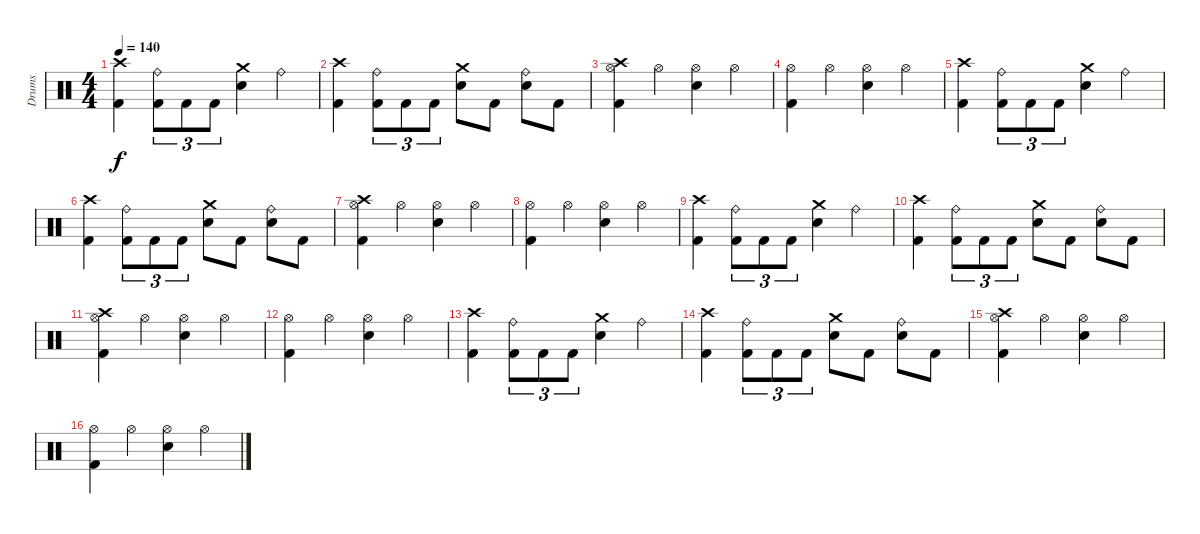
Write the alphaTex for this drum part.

\track ("Drums" "Drums") {instrument percussion}
\staff {score}
\articulation defaults
\ts (4 4)
\tempo 140
\clef neutral
\ks c
("Crash high (hit)" "Kick (hit) 2").4{dy f} ("Ride (bell)" "Kick (hit) 2").8{tu (3 2)} "Kick (hit) 2".8{tu (3 2)} "Kick (hit) 2".8{tu (3 2)} ("Crash medium (hit)" "Snare (hit) 2").4 "Ride (bell)".4 |
("Crash high (hit)" "Kick (hit) 2").4 ("Ride (bell)" "Kick (hit) 2").8{tu (3 2)} "Kick (hit) 2".8{tu (3 2)} "Kick (hit) 2".8{tu (3 2)} ("Crash medium (hit)" "Snare (hit) 2").8 "Kick (hit) 2".8 ("Ride (bell)" "Snare (hit) 2").8 "Kick (hit) 2".8 |
("Crash high (hit)" "Hi-Hat (open)" "Kick (hit) 2").4 "Hi-Hat (open)".4 ("Hi-Hat (open)" "Snare (hit) 2").4 "Hi-Hat (open)".4 |
("Hi-Hat (open)" "Kick (hit) 2").4 "Hi-Hat (open)".4 ("Hi-Hat (open)" "Snare (hit) 2").4 "Hi-Hat (open)".4 |
("Crash high (hit)" "Kick (hit) 2").4 ("Ride (bell)" "Kick (hit) 2").8{tu (3 2)} "Kick (hit) 2".8{tu (3 2)} "Kick (hit) 2".8{tu (3 2)} ("Crash medium (hit)" "Snare (hit) 2").4 "Ride (bell)".4 |
("Crash high (hit)" "Kick (hit) 2").4 ("Ride (bell)" "Kick (hit) 2").8{tu (3 2)} "Kick (hit) 2".8{tu (3 2)} "Kick (hit) 2".8{tu (3 2)} ("Crash medium (hit)" "Snare (hit) 2").8 "Kick (hit) 2".8 ("Ride (bell)" "Snare (hit) 2").8 "Kick (hit) 2".8 |
("Crash high (hit)" "Hi-Hat (open)" "Kick (hit) 2").4 "Hi-Hat (open)".4 ("Hi-Hat (open)" "Snare (hit) 2").4 "Hi-Hat (open)".4 |
("Hi-Hat (open)" "Kick (hit) 2").4 "Hi-Hat (open)".4 ("Hi-Hat (open)" "Snare (hit) 2").4 "Hi-Hat (open)".4 |
("Crash high (hit)" "Kick (hit) 2").4 ("Ride (bell)" "Kick (hit) 2").8{tu (3 2)} "Kick (hit) 2".8{tu (3 2)} "Kick (hit) 2".8{tu (3 2)} ("Crash medium (hit)" "Snare (hit) 2").4 "Ride (bell)".4 |
("Crash high (hit)" "Kick (hit) 2").4 ("Ride (bell)" "Kick (hit) 2").8{tu (3 2)} "Kick (hit) 2".8{tu (3 2)} "Kick (hit) 2".8{tu (3 2)} ("Crash medium (hit)" "Snare (hit) 2").8 "Kick (hit) 2".8 ("Ride (bell)" "Snare (hit) 2").8 "Kick (hit) 2".8 |
("Crash high (hit)" "Hi-Hat (open)" "Kick (hit) 2").4 "Hi-Hat (open)".4 ("Hi-Hat (open)" "Snare (hit) 2").4 "Hi-Hat (open)".4 |
("Hi-Hat (open)" "Kick (hit) 2").4 "Hi-Hat (open)".4 ("Hi-Hat (open)" "Snare (hit) 2").4 "Hi-Hat (open)".4 |
("Crash high (hit)" "Kick (hit) 2").4 ("Ride (bell)" "Kick (hit) 2").8{tu (3 2)} "Kick (hit) 2".8{tu (3 2)} "Kick (hit) 2".8{tu (3 2)} ("Crash medium (hit)" "Snare (hit) 2").4 "Ride (bell)".4 |
("Crash high (hit)" "Kick (hit) 2").4 ("Ride (bell)" "Kick (hit) 2").8{tu (3 2)} "Kick (hit) 2".8{tu (3 2)} "Kick (hit) 2".8{tu (3 2)} ("Crash medium (hit)" "Snare (hit) 2").8 "Kick (hit) 2".8 ("Ride (bell)" "Snare (hit) 2").8 "Kick (hit) 2".8 |
("Crash high (hit)" "Hi-Hat (open)" "Kick (hit) 2").4 "Hi-Hat (open)".4 ("Hi-Hat (open)" "Snare (hit) 2").4 "Hi-Hat (open)".4 |
("Hi-Hat (open)" "Kick (hit) 2").4 "Hi-Hat (open)".4 ("Hi-Hat (open)" "Snare (hit) 2").4 "Hi-Hat (open)".4
